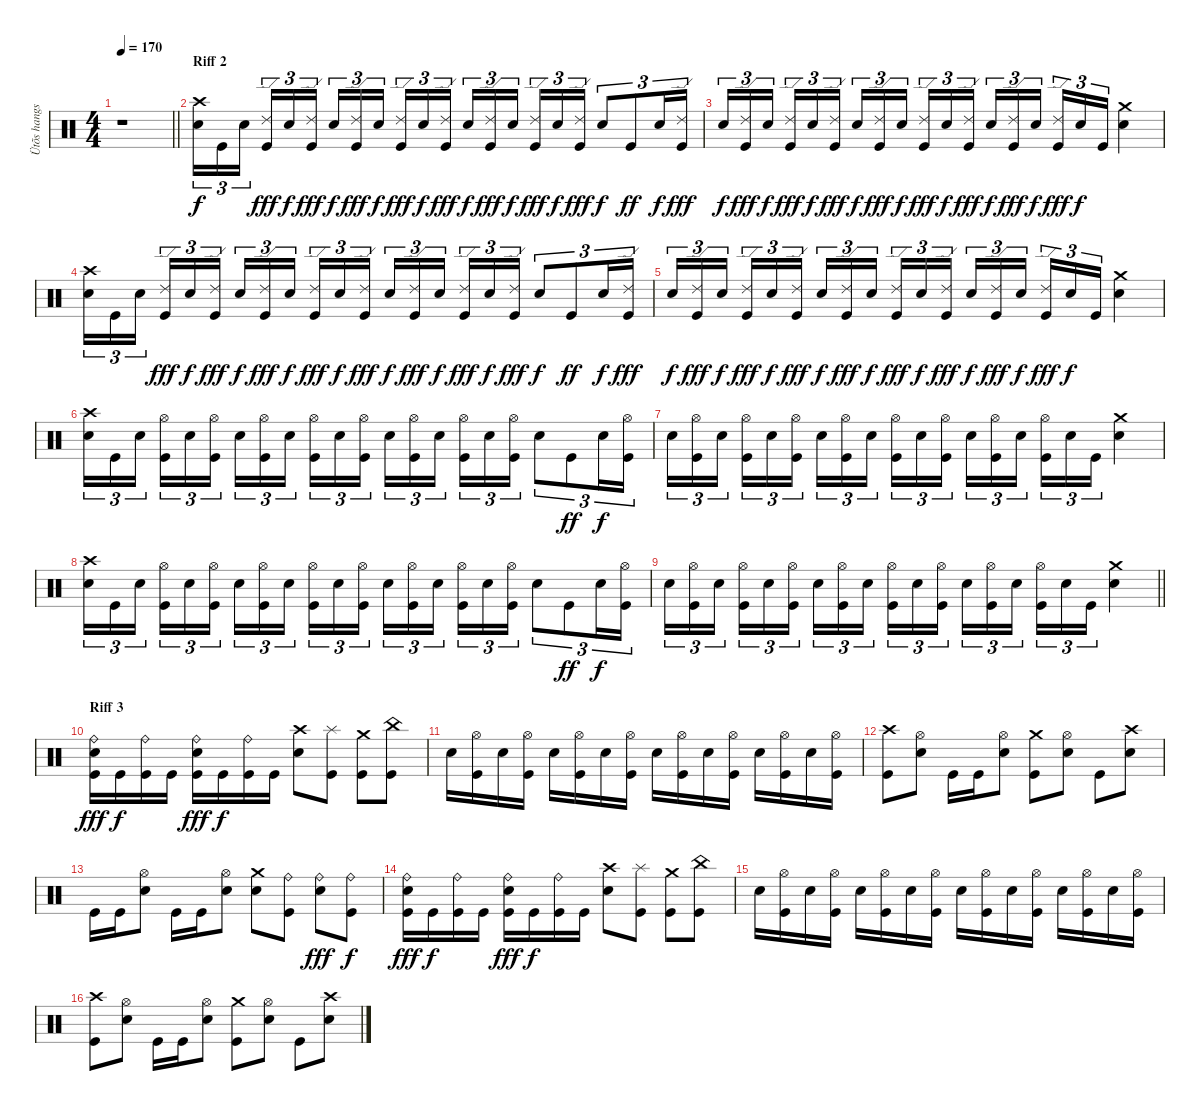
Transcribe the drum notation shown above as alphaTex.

\track ("Ütõs hangszer" "Ütõs hangs") {instrument percussion}
\staff {score}
\articulation defaults
\ts (4 4)
\tempo 170
\clef neutral
\barLineRight lightlight
\ks c
r.1{dy f} |
\section ("" "Riff 2")
("Crash high (hit)" "Electric Snare (hit)").16{tu (3 2)} "Kick (hit)".16{tu (3 2)} "Electric Snare (hit)".16{tu (3 2) beam splitsecondary} ("Ride (edge) 2" "Kick (hit)").16{tu (3 2) dy fff} "Electric Snare (hit)".16{tu (3 2) dy f} ("Ride (edge) 2" "Kick (hit)").16{tu (3 2) dy fff} "Electric Snare (hit)".16{tu (3 2) dy f} ("Ride (edge) 2" "Kick (hit)").16{tu (3 2) dy fff} "Electric Snare (hit)".16{tu (3 2) dy f beam splitsecondary} ("Ride (edge) 2" "Kick (hit)").16{tu (3 2) dy fff} "Electric Snare (hit)".16{tu (3 2) dy f} ("Ride (edge) 2" "Kick (hit)").16{tu (3 2) dy fff} "Electric Snare (hit)".16{tu (3 2) dy f} ("Ride (edge) 2" "Kick (hit)").16{tu (3 2) dy fff} "Electric Snare (hit)".16{tu (3 2) dy f beam splitsecondary} ("Ride (edge) 2" "Kick (hit)").16{tu (3 2) dy fff} "Electric Snare (hit)".16{tu (3 2) dy f} ("Ride (edge) 2" "Kick (hit)").16{tu (3 2) dy fff} "Electric Snare (hit)".8{tu (3 2) dy f} "Kick (hit)".8{tu (3 2) dy ff} "Electric Snare (hit)".16{tu (3 2) dy f} ("Ride (edge) 2" "Kick (hit)").16{tu (3 2) dy fff} |
"Electric Snare (hit)".16{tu (3 2) dy f} ("Ride (edge) 2" "Kick (hit)").16{tu (3 2) dy fff} "Electric Snare (hit)".16{tu (3 2) dy f beam splitsecondary} ("Ride (edge) 2" "Kick (hit)").16{tu (3 2) dy fff} "Electric Snare (hit)".16{tu (3 2) dy f} ("Ride (edge) 2" "Kick (hit)").16{tu (3 2) dy fff} "Electric Snare (hit)".16{tu (3 2) dy f} ("Ride (edge) 2" "Kick (hit)").16{tu (3 2) dy fff} "Electric Snare (hit)".16{tu (3 2) dy f beam splitsecondary} ("Ride (edge) 2" "Kick (hit)").16{tu (3 2) dy fff} "Electric Snare (hit)".16{tu (3 2) dy f} ("Ride (edge) 2" "Kick (hit)").16{tu (3 2) dy fff} "Electric Snare (hit)".16{tu (3 2) dy f} ("Ride (edge) 2" "Kick (hit)").16{tu (3 2) dy fff} "Electric Snare (hit)".16{tu (3 2) dy f beam splitsecondary} ("Ride (edge) 2" "Kick (hit)").16{tu (3 2) dy fff} "Electric Snare (hit)".16{tu (3 2) dy f} "Kick (hit)".16{tu (3 2)} ("Crash medium (hit)" "Electric Snare (hit)").4 |
("Crash high (hit)" "Electric Snare (hit)").16{tu (3 2)} "Kick (hit)".16{tu (3 2)} "Electric Snare (hit)".16{tu (3 2) beam splitsecondary} ("Ride (edge) 2" "Kick (hit)").16{tu (3 2) dy fff} "Electric Snare (hit)".16{tu (3 2) dy f} ("Ride (edge) 2" "Kick (hit)").16{tu (3 2) dy fff} "Electric Snare (hit)".16{tu (3 2) dy f} ("Ride (edge) 2" "Kick (hit)").16{tu (3 2) dy fff} "Electric Snare (hit)".16{tu (3 2) dy f beam splitsecondary} ("Ride (edge) 2" "Kick (hit)").16{tu (3 2) dy fff} "Electric Snare (hit)".16{tu (3 2) dy f} ("Ride (edge) 2" "Kick (hit)").16{tu (3 2) dy fff} "Electric Snare (hit)".16{tu (3 2) dy f} ("Ride (edge) 2" "Kick (hit)").16{tu (3 2) dy fff} "Electric Snare (hit)".16{tu (3 2) dy f beam splitsecondary} ("Ride (edge) 2" "Kick (hit)").16{tu (3 2) dy fff} "Electric Snare (hit)".16{tu (3 2) dy f} ("Ride (edge) 2" "Kick (hit)").16{tu (3 2) dy fff} "Electric Snare (hit)".8{tu (3 2) dy f} "Kick (hit)".8{tu (3 2) dy ff} "Electric Snare (hit)".16{tu (3 2) dy f} ("Ride (edge) 2" "Kick (hit)").16{tu (3 2) dy fff} |
"Electric Snare (hit)".16{tu (3 2) dy f} ("Ride (edge) 2" "Kick (hit)").16{tu (3 2) dy fff} "Electric Snare (hit)".16{tu (3 2) dy f beam splitsecondary} ("Ride (edge) 2" "Kick (hit)").16{tu (3 2) dy fff} "Electric Snare (hit)".16{tu (3 2) dy f} ("Ride (edge) 2" "Kick (hit)").16{tu (3 2) dy fff} "Electric Snare (hit)".16{tu (3 2) dy f} ("Ride (edge) 2" "Kick (hit)").16{tu (3 2) dy fff} "Electric Snare (hit)".16{tu (3 2) dy f beam splitsecondary} ("Ride (edge) 2" "Kick (hit)").16{tu (3 2) dy fff} "Electric Snare (hit)".16{tu (3 2) dy f} ("Ride (edge) 2" "Kick (hit)").16{tu (3 2) dy fff} "Electric Snare (hit)".16{tu (3 2) dy f} ("Ride (edge) 2" "Kick (hit)").16{tu (3 2) dy fff} "Electric Snare (hit)".16{tu (3 2) dy f beam splitsecondary} ("Ride (edge) 2" "Kick (hit)").16{tu (3 2) dy fff} "Electric Snare (hit)".16{tu (3 2) dy f} "Kick (hit)".16{tu (3 2)} ("Crash medium (hit)" "Electric Snare (hit)").4 |
("Crash high (hit)" "Electric Snare (hit)").16{tu (3 2)} "Kick (hit)".16{tu (3 2)} "Electric Snare (hit)".16{tu (3 2) beam splitsecondary} ("Hi-Hat (open)" "Kick (hit)").16{tu (3 2)} "Electric Snare (hit)".16{tu (3 2)} ("Hi-Hat (open)" "Kick (hit)").16{tu (3 2)} "Electric Snare (hit)".16{tu (3 2)} ("Hi-Hat (open)" "Kick (hit)").16{tu (3 2)} "Electric Snare (hit)".16{tu (3 2) beam splitsecondary} ("Hi-Hat (open)" "Kick (hit)").16{tu (3 2)} "Electric Snare (hit)".16{tu (3 2)} ("Hi-Hat (open)" "Kick (hit)").16{tu (3 2)} "Electric Snare (hit)".16{tu (3 2)} ("Hi-Hat (open)" "Kick (hit)").16{tu (3 2)} "Electric Snare (hit)".16{tu (3 2) beam splitsecondary} ("Hi-Hat (open)" "Kick (hit)").16{tu (3 2)} "Electric Snare (hit)".16{tu (3 2)} ("Hi-Hat (open)" "Kick (hit)").16{tu (3 2)} "Electric Snare (hit)".8{tu (3 2)} "Kick (hit)".8{tu (3 2) dy ff} "Electric Snare (hit)".16{tu (3 2) dy f} ("Hi-Hat (open)" "Kick (hit)").16{tu (3 2)} |
"Electric Snare (hit)".16{tu (3 2)} ("Hi-Hat (open)" "Kick (hit)").16{tu (3 2)} "Electric Snare (hit)".16{tu (3 2) beam splitsecondary} ("Hi-Hat (open)" "Kick (hit)").16{tu (3 2)} "Electric Snare (hit)".16{tu (3 2)} ("Hi-Hat (open)" "Kick (hit)").16{tu (3 2)} "Electric Snare (hit)".16{tu (3 2)} ("Hi-Hat (open)" "Kick (hit)").16{tu (3 2)} "Electric Snare (hit)".16{tu (3 2) beam splitsecondary} ("Hi-Hat (open)" "Kick (hit)").16{tu (3 2)} "Electric Snare (hit)".16{tu (3 2)} ("Hi-Hat (open)" "Kick (hit)").16{tu (3 2)} "Electric Snare (hit)".16{tu (3 2)} ("Hi-Hat (open)" "Kick (hit)").16{tu (3 2)} "Electric Snare (hit)".16{tu (3 2) beam splitsecondary} ("Hi-Hat (open)" "Kick (hit)").16{tu (3 2)} "Electric Snare (hit)".16{tu (3 2)} "Kick (hit)".16{tu (3 2)} ("Crash medium (hit)" "Electric Snare (hit)").4 |
("Crash high (hit)" "Electric Snare (hit)").16{tu (3 2)} "Kick (hit)".16{tu (3 2)} "Electric Snare (hit)".16{tu (3 2) beam splitsecondary} ("Hi-Hat (open)" "Kick (hit)").16{tu (3 2)} "Electric Snare (hit)".16{tu (3 2)} ("Hi-Hat (open)" "Kick (hit)").16{tu (3 2)} "Electric Snare (hit)".16{tu (3 2)} ("Hi-Hat (open)" "Kick (hit)").16{tu (3 2)} "Electric Snare (hit)".16{tu (3 2) beam splitsecondary} ("Hi-Hat (open)" "Kick (hit)").16{tu (3 2)} "Electric Snare (hit)".16{tu (3 2)} ("Hi-Hat (open)" "Kick (hit)").16{tu (3 2)} "Electric Snare (hit)".16{tu (3 2)} ("Hi-Hat (open)" "Kick (hit)").16{tu (3 2)} "Electric Snare (hit)".16{tu (3 2) beam splitsecondary} ("Hi-Hat (open)" "Kick (hit)").16{tu (3 2)} "Electric Snare (hit)".16{tu (3 2)} ("Hi-Hat (open)" "Kick (hit)").16{tu (3 2)} "Electric Snare (hit)".8{tu (3 2)} "Kick (hit)".8{tu (3 2) dy ff} "Electric Snare (hit)".16{tu (3 2) dy f} ("Hi-Hat (open)" "Kick (hit)").16{tu (3 2)} |
\barLineRight lightlight "Electric Snare (hit)".16{tu (3 2)}
("Hi-Hat (open)" "Kick (hit)").16{tu (3 2)} "Electric Snare (hit)".16{tu (3 2) beam splitsecondary} ("Hi-Hat (open)" "Kick (hit)").16{tu (3 2)} "Electric Snare (hit)".16{tu (3 2)} ("Hi-Hat (open)" "Kick (hit)").16{tu (3 2)} "Electric Snare (hit)".16{tu (3 2)} ("Hi-Hat (open)" "Kick (hit)").16{tu (3 2)} "Electric Snare (hit)".16{tu (3 2) beam splitsecondary} ("Hi-Hat (open)" "Kick (hit)").16{tu (3 2)} "Electric Snare (hit)".16{tu (3 2)} ("Hi-Hat (open)" "Kick (hit)").16{tu (3 2)} "Electric Snare (hit)".16{tu (3 2)} ("Hi-Hat (open)" "Kick (hit)").16{tu (3 2)} "Electric Snare (hit)".16{tu (3 2) beam splitsecondary} ("Hi-Hat (open)" "Kick (hit)").16{tu (3 2)} "Electric Snare (hit)".16{tu (3 2)} "Kick (hit)".16{tu (3 2)} ("Crash medium (hit)" "Electric Snare (hit)").4 |
\section ("" "Riff 3")
("Ride (bell)" "Electric Snare (hit)" "Kick (hit)").16{dy fff} "Kick (hit)".16{dy f} ("Ride (bell)" "Kick (hit)").16 "Kick (hit)".16 ("Ride (bell)" "Electric Snare (hit)" "Kick (hit)").16{dy fff} "Kick (hit)".16{dy f} ("Ride (bell)" "Kick (hit)").16 "Kick (hit)".16 ("Crash high (hit)" "Electric Snare (hit)").8 ("Splash (hit)" "Kick (hit)").8 ("Crash medium (hit)" "Kick (hit)").8 ("China (hit)" "Kick (hit)").8 |
"Electric Snare (hit)".16 ("Hi-Hat (open)" "Kick (hit)").16 "Electric Snare (hit)".16 ("Hi-Hat (open)" "Kick (hit)").16 "Electric Snare (hit)".16 ("Hi-Hat (open)" "Kick (hit)").16 "Electric Snare (hit)".16 ("Hi-Hat (open)" "Kick (hit)").16 "Electric Snare (hit)".16 ("Hi-Hat (open)" "Kick (hit)").16 "Electric Snare (hit)".16 ("Hi-Hat (open)" "Kick (hit)").16 "Electric Snare (hit)".16 ("Hi-Hat (open)" "Kick (hit)").16 "Electric Snare (hit)".16 ("Hi-Hat (open)" "Kick (hit)").16 |
("Crash high (hit)" "Kick (hit)").8 ("Hi-Hat (open)" "Electric Snare (hit)").8 "Kick (hit)".16 "Kick (hit)".16 ("Hi-Hat (open)" "Electric Snare (hit)").8 ("Crash medium (hit)" "Kick (hit)").8 ("Hi-Hat (open)" "Electric Snare (hit)").8 "Kick (hit)".8 ("Crash high (hit)" "Electric Snare (hit)").8 |
"Kick (hit)".16 "Kick (hit)".16 ("Hi-Hat (open)" "Electric Snare (hit)").8 "Kick (hit)".16 "Kick (hit)".16 ("Hi-Hat (open)" "Electric Snare (hit)").8 ("Crash medium (hit)" "Electric Snare (hit)").8 ("Ride (bell)" "Kick (hit)").8 ("Ride (bell)" "Electric Snare (hit)").8{dy fff} ("Ride (bell)" "Kick (hit)").8{dy f} |
("Ride (bell)" "Electric Snare (hit)" "Kick (hit)").16{dy fff} "Kick (hit)".16{dy f} ("Ride (bell)" "Kick (hit)").16 "Kick (hit)".16 ("Ride (bell)" "Electric Snare (hit)" "Kick (hit)").16{dy fff} "Kick (hit)".16{dy f} ("Ride (bell)" "Kick (hit)").16 "Kick (hit)".16 ("Crash high (hit)" "Electric Snare (hit)").8 ("Splash (hit)" "Kick (hit)").8 ("Crash medium (hit)" "Kick (hit)").8 ("China (hit)" "Kick (hit)").8 |
"Electric Snare (hit)".16 ("Hi-Hat (open)" "Kick (hit)").16 "Electric Snare (hit)".16 ("Hi-Hat (open)" "Kick (hit)").16 "Electric Snare (hit)".16 ("Hi-Hat (open)" "Kick (hit)").16 "Electric Snare (hit)".16 ("Hi-Hat (open)" "Kick (hit)").16 "Electric Snare (hit)".16 ("Hi-Hat (open)" "Kick (hit)").16 "Electric Snare (hit)".16 ("Hi-Hat (open)" "Kick (hit)").16 "Electric Snare (hit)".16 ("Hi-Hat (open)" "Kick (hit)").16 "Electric Snare (hit)".16 ("Hi-Hat (open)" "Kick (hit)").16 |
("Crash high (hit)" "Kick (hit)").8 ("Hi-Hat (open)" "Electric Snare (hit)").8 "Kick (hit)".16 "Kick (hit)".16 ("Hi-Hat (open)" "Electric Snare (hit)").8 ("Crash medium (hit)" "Kick (hit)").8 ("Hi-Hat (open)" "Electric Snare (hit)").8 "Kick (hit)".8 ("Crash high (hit)" "Electric Snare (hit)").8
